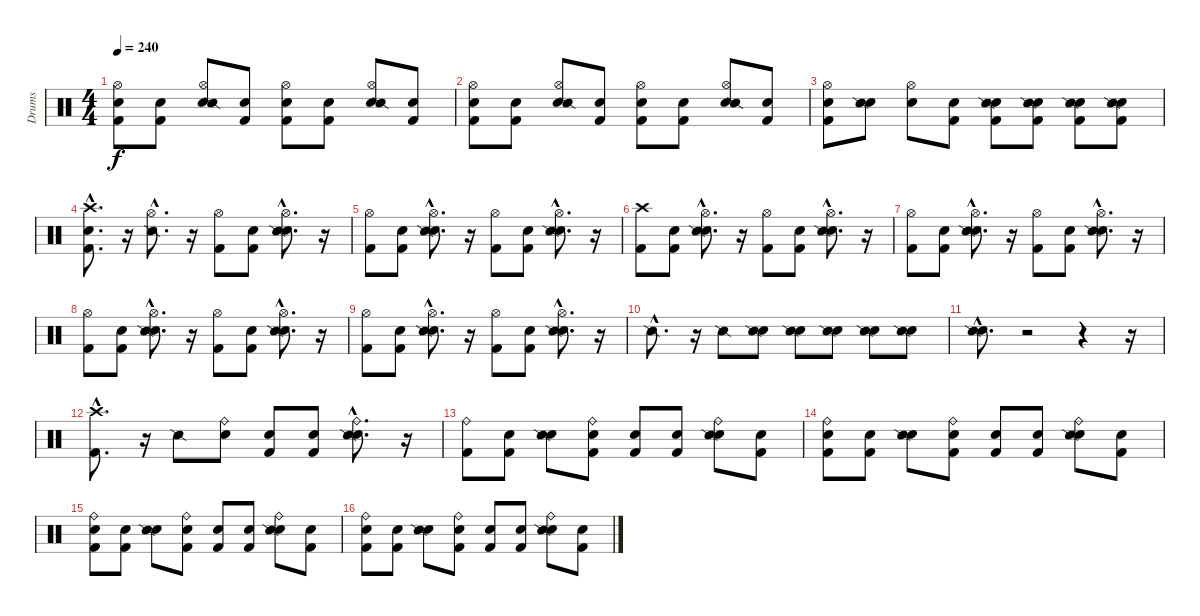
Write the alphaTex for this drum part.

\track ("Drums" "Drums") {instrument percussion}
\staff {score}
\articulation defaults
\ts (4 4)
\tempo 240
\clef neutral
\ks c
("Snare (hit)" "Kick (hit) 2" "Hi-Hat (open)").8{dy f} ("Snare (hit)" "Kick (hit) 2").8 ("Snare (hit)" "Hi-Hat (open)" "Snare (side stick) 2").8 ("Snare (hit)" "Kick (hit) 2").8 ("Snare (hit)" "Kick (hit) 2" "Hi-Hat (open)").8 ("Snare (hit)" "Kick (hit) 2").8 ("Snare (hit)" "Hi-Hat (open)" "Snare (side stick) 2").8 ("Snare (hit)" "Kick (hit) 2").8 |
("Snare (hit)" "Kick (hit) 2" "Hi-Hat (open)").8 ("Snare (hit)" "Kick (hit) 2").8 ("Snare (hit)" "Hi-Hat (open)" "Snare (side stick) 2").8 ("Snare (hit)" "Kick (hit) 2").8 ("Snare (hit)" "Kick (hit) 2" "Hi-Hat (open)").8 ("Snare (hit)" "Kick (hit) 2").8 ("Snare (hit)" "Hi-Hat (open)" "Snare (side stick) 2").8 ("Snare (hit)" "Kick (hit) 2").8 |
("Snare (hit)" "Kick (hit) 2" "Hi-Hat (open)").8 ("Snare (hit)" "Snare (side stick) 2").8 ("Snare (hit)" "Hi-Hat (open)").8 ("Snare (hit)" "Kick (hit) 2").8 ("Snare (hit)" "Kick (hit) 2" "Snare (side stick) 2").8 ("Snare (hit)" "Kick (hit) 2" "Snare (side stick) 2").8 ("Snare (hit)" "Kick (hit) 2" "Snare (side stick) 2").8 ("Snare (hit)" "Kick (hit) 2" "Snare (side stick) 2").8 |
("Snare (hit)"{hac} "Kick (hit) 2"{hac} "Crash high (hit)"{hac}).8{d} r.16 ("Hi-Hat (open)"{hac} "Snare (side stick) 2"{hac}).8{d} r.16 ("Kick (hit) 2" "Hi-Hat (open)").8 ("Snare (hit)" "Kick (hit) 2").8 ("Snare (hit)"{hac} "Hi-Hat (open)"{hac} "Snare (side stick) 2"{hac}).8{d} r.16 |
("Kick (hit) 2" "Hi-Hat (open)").8 ("Snare (hit)" "Kick (hit) 2").8 ("Snare (hit)"{hac} "Hi-Hat (open)"{hac} "Snare (side stick) 2"{hac}).8{d} r.16 ("Kick (hit) 2" "Hi-Hat (open)").8 ("Snare (hit)" "Kick (hit) 2").8 ("Snare (hit)"{hac} "Hi-Hat (open)"{hac} "Snare (side stick) 2"{hac}).8{d} r.16 |
("Kick (hit) 2" "Crash high (hit)").8 ("Snare (hit)" "Kick (hit) 2").8 ("Snare (hit)"{hac} "Hi-Hat (open)"{hac} "Snare (side stick) 2"{hac}).8{d} r.16 ("Kick (hit) 2" "Hi-Hat (open)").8 ("Snare (hit)" "Kick (hit) 2").8 ("Snare (hit)"{hac} "Hi-Hat (open)"{hac} "Snare (side stick) 2"{hac}).8{d} r.16 |
("Kick (hit) 2" "Hi-Hat (open)").8 ("Snare (hit)" "Kick (hit) 2").8 ("Snare (hit)"{hac} "Hi-Hat (open)"{hac} "Snare (side stick) 2"{hac}).8{d} r.16 ("Kick (hit) 2" "Hi-Hat (open)").8 ("Snare (hit)" "Kick (hit) 2").8 ("Snare (hit)"{hac} "Hi-Hat (open)"{hac} "Snare (side stick) 2"{hac}).8{d} r.16 |
("Kick (hit) 2" "Hi-Hat (open)").8 ("Snare (hit)" "Kick (hit) 2").8 ("Snare (hit)"{hac} "Hi-Hat (open)"{hac} "Snare (side stick) 2"{hac}).8{d} r.16 ("Kick (hit) 2" "Hi-Hat (open)").8 ("Snare (hit)" "Kick (hit) 2").8 ("Snare (hit)"{hac} "Hi-Hat (open)"{hac} "Snare (side stick) 2"{hac}).8{d} r.16 |
("Kick (hit) 2" "Hi-Hat (open)").8 ("Snare (hit)" "Kick (hit) 2").8 ("Snare (hit)"{hac} "Hi-Hat (open)"{hac} "Snare (side stick) 2"{hac}).8{d} r.16 ("Kick (hit) 2" "Hi-Hat (open)").8 ("Snare (hit)" "Kick (hit) 2").8 ("Snare (hit)"{hac} "Hi-Hat (open)"{hac} "Snare (side stick) 2"{hac}).8{d} r.16 |
"Snare (side stick) 2"{hac}.8{d} r.16 "Snare (side stick) 2".8 ("Snare (hit)" "Snare (side stick) 2").8 ("Snare (hit)" "Snare (side stick) 2").8 ("Snare (hit)" "Snare (side stick) 2").8 ("Snare (hit)" "Snare (side stick) 2").8 ("Snare (hit)" "Snare (side stick) 2").8 |
("Snare (hit)"{hac} "Snare (side stick) 2"{hac}).8{d} r.2 r.4 r.16 |
("Kick (hit) 2"{hac} "Crash high (hit)"{hac}).8{d} r.16 "Snare (side stick) 2".8 ("Snare (hit)" "Ride (bell)").8 ("Snare (hit)" "Kick (hit) 2").8 ("Snare (hit)" "Kick (hit) 2").8 ("Snare (hit)"{hac} "Snare (side stick) 2"{hac} "Ride (bell)"{hac}).8{d} r.16 |
("Kick (hit) 2" "Ride (bell)").8 ("Snare (hit)" "Kick (hit) 2").8 ("Snare (hit)" "Snare (side stick) 2").8 ("Snare (hit)" "Kick (hit) 2" "Ride (bell)").8 ("Snare (hit)" "Kick (hit) 2").8 ("Snare (hit)" "Kick (hit) 2").8 ("Snare (hit)" "Ride (bell)" "Snare (side stick) 2").8 ("Snare (hit)" "Kick (hit) 2").8 |
("Snare (hit)" "Kick (hit) 2" "Ride (bell)").8 ("Snare (hit)" "Kick (hit) 2").8 ("Snare (hit)" "Snare (side stick) 2").8 ("Snare (hit)" "Kick (hit) 2" "Ride (bell)").8 ("Snare (hit)" "Kick (hit) 2").8 ("Snare (hit)" "Kick (hit) 2").8 ("Snare (hit)" "Ride (bell)" "Snare (side stick) 2").8 ("Snare (hit)" "Kick (hit) 2").8 |
("Snare (hit)" "Kick (hit) 2" "Ride (bell)").8 ("Snare (hit)" "Kick (hit) 2").8 ("Snare (hit)" "Snare (side stick) 2").8 ("Snare (hit)" "Kick (hit) 2" "Ride (bell)").8 ("Snare (hit)" "Kick (hit) 2").8 ("Snare (hit)" "Kick (hit) 2").8 ("Snare (hit)" "Ride (bell)" "Snare (side stick) 2").8 ("Snare (hit)" "Kick (hit) 2").8 |
("Snare (hit)" "Kick (hit) 2" "Ride (bell)").8 ("Snare (hit)" "Kick (hit) 2").8 ("Snare (hit)" "Snare (side stick) 2").8 ("Snare (hit)" "Kick (hit) 2" "Ride (bell)").8 ("Snare (hit)" "Kick (hit) 2").8 ("Snare (hit)" "Kick (hit) 2").8 ("Snare (hit)" "Ride (bell)" "Snare (side stick) 2").8 ("Snare (hit)" "Kick (hit) 2").8
